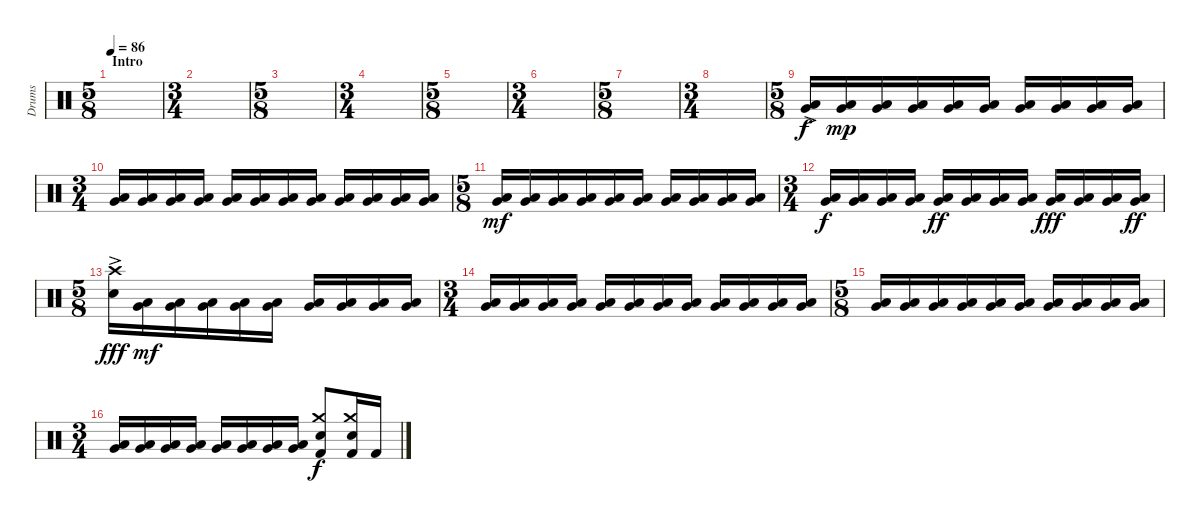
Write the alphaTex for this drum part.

\track ("Drums" "Drums") {instrument percussion}
\staff {score}
\articulation defaults
\ts (5 8)
\section ("" "Intro")
\tempo 86
\clef neutral
\ks c
|
\ts (3 4)
|
\ts (5 8)
|
\ts (3 4)
|
\ts (5 8)
|
\ts (3 4)
|
\ts (5 8)
|
\ts (3 4)
|
\ts (5 8)
("Low Tom (hit)"{ac} "Very Low Tom (hit)"{ac}).16 ("Low Tom (hit)" "Very Low Tom (hit)").16{dy mp} ("Low Tom (hit)" "Very Low Tom (hit)").16 ("Low Tom (hit)" "Very Low Tom (hit)").16 ("Low Tom (hit)" "Very Low Tom (hit)").16 ("Low Tom (hit)" "Very Low Tom (hit)").16 ("Low Tom (hit)" "Very Low Tom (hit)").16 ("Low Tom (hit)" "Very Low Tom (hit)").16 ("Low Tom (hit)" "Very Low Tom (hit)").16 ("Low Tom (hit)" "Very Low Tom (hit)").16 |
\ts (3 4)
("Low Tom (hit)" "Very Low Tom (hit)").16 ("Low Tom (hit)" "Very Low Tom (hit)").16 ("Low Tom (hit)" "Very Low Tom (hit)").16 ("Low Tom (hit)" "Very Low Tom (hit)").16 ("Low Tom (hit)" "Very Low Tom (hit)").16 ("Low Tom (hit)" "Very Low Tom (hit)").16 ("Low Tom (hit)" "Very Low Tom (hit)").16 ("Low Tom (hit)" "Very Low Tom (hit)").16 ("Low Tom (hit)" "Very Low Tom (hit)").16 ("Low Tom (hit)" "Very Low Tom (hit)").16 ("Low Tom (hit)" "Very Low Tom (hit)").16 ("Low Tom (hit)" "Very Low Tom (hit)").16 |
\ts (5 8)
("Low Tom (hit)" "Very Low Tom (hit)").16{dy mf} ("Low Tom (hit)" "Very Low Tom (hit)").16 ("Low Tom (hit)" "Very Low Tom (hit)").16 ("Low Tom (hit)" "Very Low Tom (hit)").16 ("Low Tom (hit)" "Very Low Tom (hit)").16 ("Low Tom (hit)" "Very Low Tom (hit)").16 ("Low Tom (hit)" "Very Low Tom (hit)").16 ("Low Tom (hit)" "Very Low Tom (hit)").16 ("Low Tom (hit)" "Very Low Tom (hit)").16 ("Low Tom (hit)" "Very Low Tom (hit)").16 |
\ts (3 4)
("Low Tom (hit)" "Very Low Tom (hit)").16{dy f} ("Low Tom (hit)" "Very Low Tom (hit)").16 ("Low Tom (hit)" "Very Low Tom (hit)").16 ("Low Tom (hit)" "Very Low Tom (hit)").16 ("Low Tom (hit)" "Very Low Tom (hit)").16{dy ff} ("Low Tom (hit)" "Very Low Tom (hit)").16 ("Low Tom (hit)" "Very Low Tom (hit)").16 ("Low Tom (hit)" "Very Low Tom (hit)").16 ("Low Tom (hit)" "Very Low Tom (hit)").16{dy fff} ("Low Tom (hit)" "Very Low Tom (hit)").16 ("Low Tom (hit)" "Very Low Tom (hit)").16 ("Low Tom (hit)" "Very Low Tom (hit)").16{dy ff} |
\ts (5 8)
("Crash high (hit)" "Electric Snare (hit)"{ac}).16{dy fff} ("Low Tom (hit)" "Very Low Tom (hit)").16{dy mf} ("Low Tom (hit)" "Very Low Tom (hit)").16 ("Low Tom (hit)" "Very Low Tom (hit)").16 ("Low Tom (hit)" "Very Low Tom (hit)").16 ("Low Tom (hit)" "Very Low Tom (hit)").16 ("Low Tom (hit)" "Very Low Tom (hit)").16 ("Low Tom (hit)" "Very Low Tom (hit)").16 ("Low Tom (hit)" "Very Low Tom (hit)").16 ("Low Tom (hit)" "Very Low Tom (hit)").16 |
\ts (3 4)
("Low Tom (hit)" "Very Low Tom (hit)").16 ("Low Tom (hit)" "Very Low Tom (hit)").16 ("Low Tom (hit)" "Very Low Tom (hit)").16 ("Low Tom (hit)" "Very Low Tom (hit)").16 ("Low Tom (hit)" "Very Low Tom (hit)").16 ("Low Tom (hit)" "Very Low Tom (hit)").16 ("Low Tom (hit)" "Very Low Tom (hit)").16 ("Low Tom (hit)" "Very Low Tom (hit)").16 ("Low Tom (hit)" "Very Low Tom (hit)").16 ("Low Tom (hit)" "Very Low Tom (hit)").16 ("Low Tom (hit)" "Very Low Tom (hit)").16 ("Low Tom (hit)" "Very Low Tom (hit)").16 |
\ts (5 8)
("Low Tom (hit)" "Very Low Tom (hit)").16 ("Low Tom (hit)" "Very Low Tom (hit)").16 ("Low Tom (hit)" "Very Low Tom (hit)").16 ("Low Tom (hit)" "Very Low Tom (hit)").16 ("Low Tom (hit)" "Very Low Tom (hit)").16 ("Low Tom (hit)" "Very Low Tom (hit)").16 ("Low Tom (hit)" "Very Low Tom (hit)").16 ("Low Tom (hit)" "Very Low Tom (hit)").16 ("Low Tom (hit)" "Very Low Tom (hit)").16 ("Low Tom (hit)" "Very Low Tom (hit)").16 |
\ts (3 4)
("Low Tom (hit)" "Very Low Tom (hit)").16 ("Low Tom (hit)" "Very Low Tom (hit)").16 ("Low Tom (hit)" "Very Low Tom (hit)").16 ("Low Tom (hit)" "Very Low Tom (hit)").16 ("Low Tom (hit)" "Very Low Tom (hit)").16 ("Low Tom (hit)" "Very Low Tom (hit)").16 ("Low Tom (hit)" "Very Low Tom (hit)").16 ("Low Tom (hit)" "Very Low Tom (hit)").16 ("Crash medium (hit)" "Electric Snare (hit)" "Kick (hit) 2").8{dy f} ("Crash medium (hit)" "Electric Snare (hit)" "Kick (hit) 2").16 "Kick (hit) 2".16
